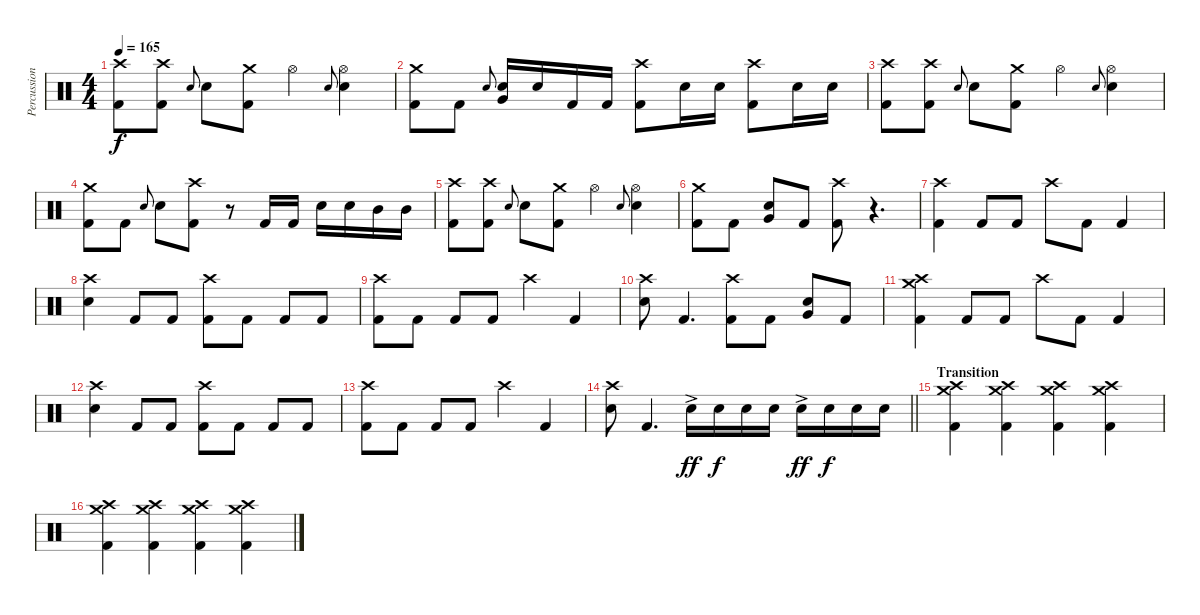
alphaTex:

\track ("Percussion" "Percussion") {instrument percussion}
\staff {score}
\articulation defaults
\ts (4 4)
\tempo 165
\clef neutral
\ks c
("Crash high (hit)" "Kick (hit) 2").8{dy f} ("Crash high (hit)" "Kick (hit) 2").8 "Snare (hit) 2".8{gr onbeat} "Snare (hit) 2".8 ("Crash medium (hit)" "Kick (hit) 2").8 "Hi-Hat (open)".4 "Snare (hit) 2".8{gr onbeat} ("Hi-Hat (open)" "Snare (hit) 2").4 |
("Crash medium (hit)" "Kick (hit) 2").8 "Kick (hit) 2".8 "Snare (hit) 2".8{gr onbeat} ("Very Low Tom (hit)" "Snare (hit) 2").16 "Snare (hit) 2".16 "Kick (hit) 2".16 "Kick (hit) 2".16 ("Crash high (hit)" "Kick (hit) 2").8 "Snare (hit) 2".16 "Snare (hit) 2".16 ("Crash high (hit)" "Kick (hit) 2").8 "Snare (hit) 2".16 "Snare (hit) 2".16 |
("Crash high (hit)" "Kick (hit) 2").8 ("Crash high (hit)" "Kick (hit) 2").8 "Snare (hit) 2".8{gr onbeat} "Snare (hit) 2".8 ("Crash medium (hit)" "Kick (hit) 2").8 "Hi-Hat (open)".4 "Snare (hit) 2".8{gr onbeat} ("Hi-Hat (open)" "Snare (hit) 2").4 |
("Crash medium (hit)" "Kick (hit) 2").8 "Kick (hit) 2".8 "Snare (hit) 2".8{gr onbeat} "Snare (hit) 2".8 ("Crash high (hit)" "Kick (hit) 2").8 r.8 "Kick (hit) 2".16 "Kick (hit) 2".16 "Snare (hit) 2".16 "Snare (hit) 2".16 "Mid Tom (hit)".16 "Mid Tom (hit)".16 |
("Crash high (hit)" "Kick (hit) 2").8 ("Crash high (hit)" "Kick (hit) 2").8 "Snare (hit) 2".8{gr onbeat} "Snare (hit) 2".8 ("Crash medium (hit)" "Kick (hit) 2").8 "Hi-Hat (open)".4 "Snare (hit) 2".8{gr onbeat} ("Hi-Hat (open)" "Snare (hit) 2").4 |
("Crash medium (hit)" "Kick (hit) 2").8 "Kick (hit) 2".8 ("Very Low Tom (hit)" "Snare (hit) 2").8 "Kick (hit) 2".8 ("Crash high (hit)" "Kick (hit) 2").8 r.4{d volume 0} |
("Crash high (hit)" "Kick (hit) 2").4{volume 13} "Kick (hit) 2".8 "Kick (hit) 2".8 "Crash high (hit)".8 "Kick (hit) 2".8 "Kick (hit) 2".4 |
("Crash high (hit)" "Snare (hit) 2").4 "Kick (hit) 2".8 "Kick (hit) 2".8 ("Crash high (hit)" "Kick (hit) 2").8 "Kick (hit) 2".8 "Kick (hit) 2".8 "Kick (hit) 2".8 |
("Crash high (hit)" "Kick (hit) 2").8 "Kick (hit) 2".8 "Kick (hit) 2".8 "Kick (hit) 2".8 "Crash high (hit)".4 "Kick (hit) 2".4 |
("Crash high (hit)" "Snare (hit) 2").8 "Kick (hit) 2".4{d} ("Crash high (hit)" "Kick (hit) 2").8 "Kick (hit) 2".8 ("Very Low Tom (hit)" "Snare (hit) 2").8 "Kick (hit) 2".8 |
("Crash high (hit)" "Crash medium (hit)" "Kick (hit) 2").4 "Kick (hit) 2".8 "Kick (hit) 2".8 "Crash high (hit)".8 "Kick (hit) 2".8 "Kick (hit) 2".4 |
("Crash high (hit)" "Snare (hit) 2").4 "Kick (hit) 2".8 "Kick (hit) 2".8 ("Crash high (hit)" "Kick (hit) 2").8 "Kick (hit) 2".8 "Kick (hit) 2".8 "Kick (hit) 2".8 |
("Crash high (hit)" "Kick (hit) 2").8 "Kick (hit) 2".8 "Kick (hit) 2".8 "Kick (hit) 2".8 "Crash high (hit)".4 "Kick (hit) 2".4 |
\barLineRight lightlight
("Crash high (hit)" "Snare (hit) 2").8 "Kick (hit) 2".4{d} "Snare (hit) 2"{ac}.16{dy ff} "Snare (hit) 2".16{dy f} "Snare (hit) 2".16 "Snare (hit) 2".16 "Snare (hit) 2"{ac}.16{dy ff} "Snare (hit) 2".16{dy f} "Snare (hit) 2".16 "Snare (hit) 2".16 |
\section ("" "Transition")
("Crash medium (hit)" "Crash high (hit)" "Kick (hit) 2").4 ("Crash medium (hit)" "Crash high (hit)" "Kick (hit) 2").4 ("Crash medium (hit)" "Crash high (hit)" "Kick (hit) 2").4 ("Crash medium (hit)" "Crash high (hit)" "Kick (hit) 2").4 |
("Crash medium (hit)" "Crash high (hit)" "Kick (hit) 2").4 ("Crash medium (hit)" "Crash high (hit)" "Kick (hit) 2").4 ("Crash medium (hit)" "Crash high (hit)" "Kick (hit) 2").4 ("Crash medium (hit)" "Crash high (hit)" "Kick (hit) 2").4
